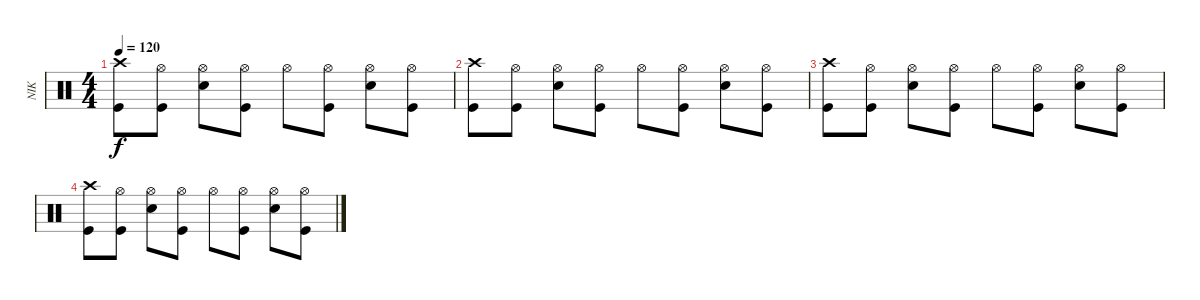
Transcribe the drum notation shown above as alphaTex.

\track ("NIK" "NIK") {instrument percussion}
\staff {score}
\articulation defaults
\ts (4 4)
\tempo 120
\clef neutral
\ks c
("Crash high (hit)" "Kick (hit)").8{dy f} ("Hi-Hat (open)" "Kick (hit)").8 ("Hi-Hat (open)" "Electric Snare (hit)").8 ("Hi-Hat (open)" "Kick (hit)").8 "Hi-Hat (open)".8 ("Hi-Hat (open)" "Kick (hit)").8 ("Hi-Hat (open)" "Electric Snare (hit)").8 ("Hi-Hat (open)" "Kick (hit)").8 |
("Crash high (hit)" "Kick (hit)").8 ("Hi-Hat (open)" "Kick (hit)").8 ("Hi-Hat (open)" "Electric Snare (hit)").8 ("Hi-Hat (open)" "Kick (hit)").8 "Hi-Hat (open)".8 ("Hi-Hat (open)" "Kick (hit)").8 ("Hi-Hat (open)" "Electric Snare (hit)").8 ("Hi-Hat (open)" "Kick (hit)").8 |
("Crash high (hit)" "Kick (hit)").8 ("Hi-Hat (open)" "Kick (hit)").8 ("Hi-Hat (open)" "Electric Snare (hit)").8 ("Hi-Hat (open)" "Kick (hit)").8 "Hi-Hat (open)".8 ("Hi-Hat (open)" "Kick (hit)").8 ("Hi-Hat (open)" "Electric Snare (hit)").8 ("Hi-Hat (open)" "Kick (hit)").8 |
("Crash high (hit)" "Kick (hit)").8 ("Hi-Hat (open)" "Kick (hit)").8 ("Hi-Hat (open)" "Electric Snare (hit)").8 ("Hi-Hat (open)" "Kick (hit)").8 "Hi-Hat (open)".8 ("Hi-Hat (open)" "Kick (hit)").8 ("Hi-Hat (open)" "Electric Snare (hit)").8 ("Hi-Hat (open)" "Kick (hit)").8
